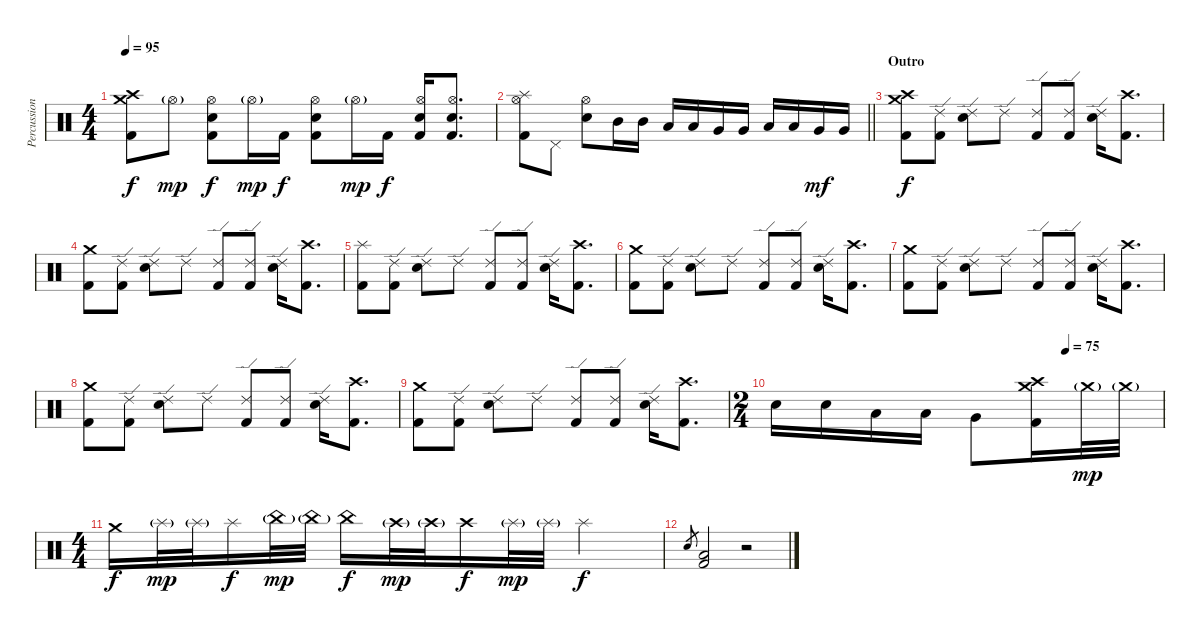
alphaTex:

\track ("Percussion" "Percussion") {instrument percussion}
\staff {score}
\articulation defaults
\ts (4 4)
\tempo 95
\clef neutral
\ks c
("Crash medium (hit)" "Crash high (hit)" "Kick (hit) 2").8{dy f} "Hi-Hat (open)"{g}.8{dy mp} ("Snare (hit) 2" "Hi-Hat (open)" "Kick (hit) 2").8{dy f} "Hi-Hat (open)"{g}.16{dy mp} "Kick (hit) 2".16{dy f} ("Snare (hit) 2" "Hi-Hat (open)" "Kick (hit) 2").8 "Hi-Hat (open)"{g}.16{dy mp} "Kick (hit) 2".16{dy f} ("Snare (hit) 2" "Hi-Hat (open)" "Kick (hit) 2").16 ("Snare (hit) 2" "Hi-Hat (open)" "Kick (hit) 2").8{d} |
\barLineRight lightlight
("Splash (hit)" "Hi-Hat (open)" "Kick (hit) 2").8 "Pedal Hi-Hat (hit)".8 ("Snare (hit) 2" "Hi-Hat (open)").8 "Mid Tom (hit)".16 "Mid Tom (hit)".16 "Low Tom (hit)".16 "Low Tom (hit)".16 "Very Low Tom (hit)".16 "Very Low Tom (hit)".16 "Low Floor Tom (hit)".16 "Low Floor Tom (hit)".16 "Very Low Tom (hit)".16{dy mf} "Very Low Tom (hit)".16 |
\section ("" "Outro")
("Crash medium (hit)" "Crash high (hit)" "Kick (hit) 2").8{dy f} ("Ride (edge) 2" "Kick (hit) 2").8 ("Ride (edge) 2" "Snare (hit) 2").8 "Ride (edge) 2".8 ("Ride (edge) 2" "Kick (hit) 2").8 ("Ride (edge) 2" "Kick (hit) 2").8 ("Ride (edge) 2" "Snare (hit) 2").16 ("Crash high (hit)" "Kick (hit) 2").8{d} |
("Crash medium (hit)" "Kick (hit) 2").8 ("Ride (edge) 2" "Kick (hit) 2").8 ("Ride (edge) 2" "Snare (hit) 2").8 "Ride (edge) 2".8 ("Ride (edge) 2" "Kick (hit) 2").8 ("Ride (edge) 2" "Kick (hit) 2").8 ("Ride (edge) 2" "Snare (hit) 2").16 ("Crash high (hit)" "Kick (hit) 2").8{d} |
("Splash (hit)" "Kick (hit) 2").8 ("Ride (edge) 2" "Kick (hit) 2").8 ("Ride (edge) 2" "Snare (hit) 2").8 "Ride (edge) 2".8 ("Ride (edge) 2" "Kick (hit) 2").8 ("Ride (edge) 2" "Kick (hit) 2").8 ("Ride (edge) 2" "Snare (hit) 2").16 ("Crash high (hit)" "Kick (hit) 2").8{d} |
("Crash medium (hit)" "Kick (hit) 2").8 ("Ride (edge) 2" "Kick (hit) 2").8 ("Ride (edge) 2" "Snare (hit) 2").8 "Ride (edge) 2".8 ("Ride (edge) 2" "Kick (hit) 2").8 ("Ride (edge) 2" "Kick (hit) 2").8 ("Ride (edge) 2" "Snare (hit) 2").16 ("Crash high (hit)" "Kick (hit) 2").8{d} |
("Crash medium (hit)" "Kick (hit) 2").8 ("Ride (edge) 2" "Kick (hit) 2").8 ("Ride (edge) 2" "Snare (hit) 2").8 "Ride (edge) 2".8 ("Ride (edge) 2" "Kick (hit) 2").8 ("Ride (edge) 2" "Kick (hit) 2").8 ("Ride (edge) 2" "Snare (hit) 2").16 ("Crash high (hit)" "Kick (hit) 2").8{d} |
("Crash medium (hit)" "Kick (hit) 2").8 ("Ride (edge) 2" "Kick (hit) 2").8 ("Ride (edge) 2" "Snare (hit) 2").8 "Ride (edge) 2".8 ("Ride (edge) 2" "Kick (hit) 2").8 ("Ride (edge) 2" "Kick (hit) 2").8 ("Ride (edge) 2" "Snare (hit) 2").16 ("Crash high (hit)" "Kick (hit) 2").8{d} |
("Crash medium (hit)" "Kick (hit) 2").8 ("Ride (edge) 2" "Kick (hit) 2").8 ("Ride (edge) 2" "Snare (hit) 2").8 "Ride (edge) 2".8 ("Ride (edge) 2" "Kick (hit) 2").8 ("Ride (edge) 2" "Kick (hit) 2").8 ("Ride (edge) 2" "Snare (hit) 2").16 ("Crash high (hit)" "Kick (hit) 2").8{d} |
\ts (2 4)
\tempo (75 0.75)
"Snare (hit) 2".16 "Snare (hit) 2".16 "Low Tom (hit)".16 "Low Tom (hit)".16 "Very Low Tom (hit)".8 ("Crash medium (hit)" "Crash high (hit)" "Kick (hit) 2").16 "Crash medium (hit)"{g}.32{dy mp} "Crash medium (hit)"{g}.32 |
\ts (4 4)
"Crash medium (hit)".16{dy f} "Splash (hit)"{g}.32{dy mp} "Splash (hit)"{g}.32 "Splash (hit)".16{dy f} "China (hit)"{g}.32{dy mp} "China (hit)"{g}.32 "China (hit)".16{dy f} "Crash high (hit)"{g}.32{dy mp} "Crash high (hit)"{g}.32 "Crash high (hit)".16{dy f} "Splash (hit)"{g}.32{dy mp} "Splash (hit)"{g}.32 "Splash (hit)".2{dy f} |
"Snare (hit) 2".8{gr} ("Low Tom (hit)" "Kick (hit) 2").2 r.2
